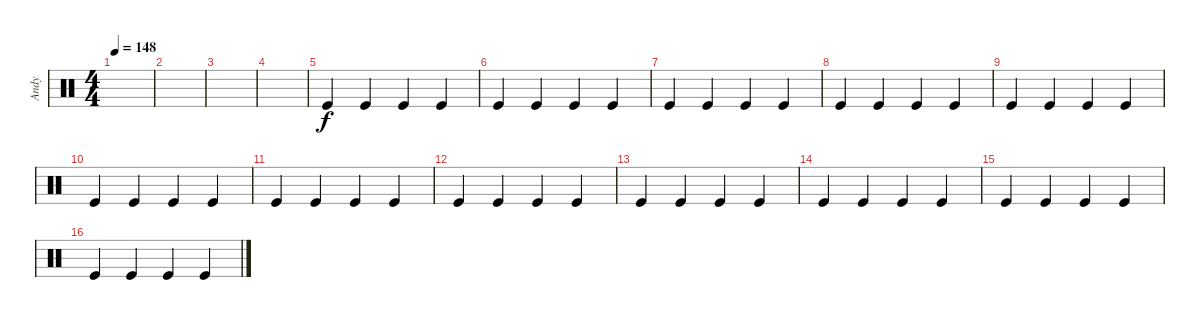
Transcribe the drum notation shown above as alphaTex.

\track ("Andy" "Andy") {instrument percussion}
\staff {score}
\articulation defaults
\ts (4 4)
\tempo 148
\clef neutral
\ks c
|
|
|
|
"Kick (hit)".4 "Kick (hit)".4 "Kick (hit)".4 "Kick (hit)".4 |
"Kick (hit)".4 "Kick (hit)".4 "Kick (hit)".4 "Kick (hit)".4 |
"Kick (hit)".4 "Kick (hit)".4 "Kick (hit)".4 "Kick (hit)".4 |
"Kick (hit)".4 "Kick (hit)".4 "Kick (hit)".4 "Kick (hit)".4 |
"Kick (hit)".4 "Kick (hit)".4 "Kick (hit)".4 "Kick (hit)".4 |
"Kick (hit)".4 "Kick (hit)".4 "Kick (hit)".4 "Kick (hit)".4 |
"Kick (hit)".4 "Kick (hit)".4 "Kick (hit)".4 "Kick (hit)".4 |
"Kick (hit)".4 "Kick (hit)".4 "Kick (hit)".4 "Kick (hit)".4 |
"Kick (hit)".4 "Kick (hit)".4 "Kick (hit)".4 "Kick (hit)".4 |
"Kick (hit)".4 "Kick (hit)".4 "Kick (hit)".4 "Kick (hit)".4 |
"Kick (hit)".4 "Kick (hit)".4 "Kick (hit)".4 "Kick (hit)".4 |
"Kick (hit)".4 "Kick (hit)".4 "Kick (hit)".4 "Kick (hit)".4
